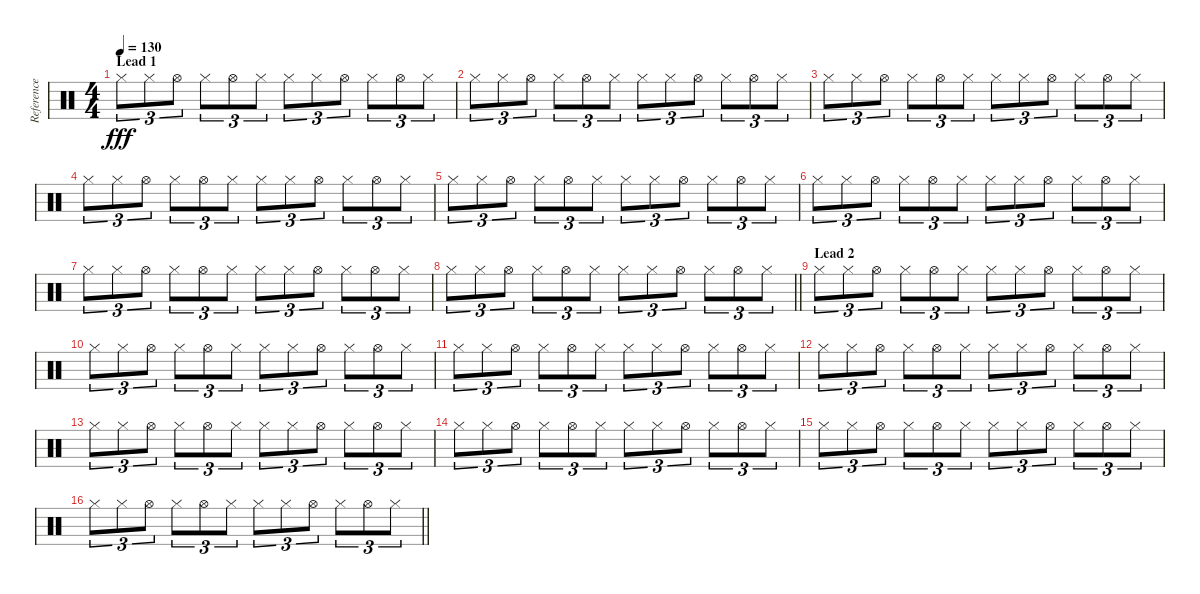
\track ("Reference metronome" "Reference ") {instrument percussion}
\staff {score}
\articulation defaults
\ts (4 4)
\section ("" "Lead 1")
\tempo 130
\clef neutral
\ks c "Hi-Hat (closed)".8{tu (3 2) dy fff} "Hi-Hat (closed)".8{tu (3 2)} "Hi-Hat (open)".8{tu (3 2)} "Hi-Hat (closed)".8{tu (3 2)} "Hi-Hat (open)".8{tu (3 2)} "Hi-Hat (closed)".8{tu (3 2)} "Hi-Hat (closed)".8{tu (3 2)} "Hi-Hat (closed)".8{tu (3 2)} "Hi-Hat (open)".8{tu (3 2)} "Hi-Hat (closed)".8{tu (3 2)} "Hi-Hat (open)".8{tu (3 2)} "Hi-Hat (closed)".8{tu (3 2)}
|
"Hi-Hat (closed)".8{tu (3 2)} "Hi-Hat (closed)".8{tu (3 2)} "Hi-Hat (open)".8{tu (3 2)} "Hi-Hat (closed)".8{tu (3 2)} "Hi-Hat (open)".8{tu (3 2)} "Hi-Hat (closed)".8{tu (3 2)} "Hi-Hat (closed)".8{tu (3 2)} "Hi-Hat (closed)".8{tu (3 2)} "Hi-Hat (open)".8{tu (3 2)} "Hi-Hat (closed)".8{tu (3 2)} "Hi-Hat (open)".8{tu (3 2)} "Hi-Hat (closed)".8{tu (3 2)} |
"Hi-Hat (closed)".8{tu (3 2)} "Hi-Hat (closed)".8{tu (3 2)} "Hi-Hat (open)".8{tu (3 2)} "Hi-Hat (closed)".8{tu (3 2)} "Hi-Hat (open)".8{tu (3 2)} "Hi-Hat (closed)".8{tu (3 2)} "Hi-Hat (closed)".8{tu (3 2)} "Hi-Hat (closed)".8{tu (3 2)} "Hi-Hat (open)".8{tu (3 2)} "Hi-Hat (closed)".8{tu (3 2)} "Hi-Hat (open)".8{tu (3 2)} "Hi-Hat (closed)".8{tu (3 2)} |
"Hi-Hat (closed)".8{tu (3 2)} "Hi-Hat (closed)".8{tu (3 2)} "Hi-Hat (open)".8{tu (3 2)} "Hi-Hat (closed)".8{tu (3 2)} "Hi-Hat (open)".8{tu (3 2)} "Hi-Hat (closed)".8{tu (3 2)} "Hi-Hat (closed)".8{tu (3 2)} "Hi-Hat (closed)".8{tu (3 2)} "Hi-Hat (open)".8{tu (3 2)} "Hi-Hat (closed)".8{tu (3 2)} "Hi-Hat (open)".8{tu (3 2)} "Hi-Hat (closed)".8{tu (3 2)} |
"Hi-Hat (closed)".8{tu (3 2)} "Hi-Hat (closed)".8{tu (3 2)} "Hi-Hat (open)".8{tu (3 2)} "Hi-Hat (closed)".8{tu (3 2)} "Hi-Hat (open)".8{tu (3 2)} "Hi-Hat (closed)".8{tu (3 2)} "Hi-Hat (closed)".8{tu (3 2)} "Hi-Hat (closed)".8{tu (3 2)} "Hi-Hat (open)".8{tu (3 2)} "Hi-Hat (closed)".8{tu (3 2)} "Hi-Hat (open)".8{tu (3 2)} "Hi-Hat (closed)".8{tu (3 2)} |
"Hi-Hat (closed)".8{tu (3 2)} "Hi-Hat (closed)".8{tu (3 2)} "Hi-Hat (open)".8{tu (3 2)} "Hi-Hat (closed)".8{tu (3 2)} "Hi-Hat (open)".8{tu (3 2)} "Hi-Hat (closed)".8{tu (3 2)} "Hi-Hat (closed)".8{tu (3 2)} "Hi-Hat (closed)".8{tu (3 2)} "Hi-Hat (open)".8{tu (3 2)} "Hi-Hat (closed)".8{tu (3 2)} "Hi-Hat (open)".8{tu (3 2)} "Hi-Hat (closed)".8{tu (3 2)} |
"Hi-Hat (closed)".8{tu (3 2)} "Hi-Hat (closed)".8{tu (3 2)} "Hi-Hat (open)".8{tu (3 2)} "Hi-Hat (closed)".8{tu (3 2)} "Hi-Hat (open)".8{tu (3 2)} "Hi-Hat (closed)".8{tu (3 2)} "Hi-Hat (closed)".8{tu (3 2)} "Hi-Hat (closed)".8{tu (3 2)} "Hi-Hat (open)".8{tu (3 2)} "Hi-Hat (closed)".8{tu (3 2)} "Hi-Hat (open)".8{tu (3 2)} "Hi-Hat (closed)".8{tu (3 2)} |
\barLineRight lightlight "Hi-Hat (closed)".8{tu (3 2)} "Hi-Hat (closed)".8{tu (3 2)} "Hi-Hat (open)".8{tu (3 2)} "Hi-Hat (closed)".8{tu (3 2)} "Hi-Hat (open)".8{tu (3 2)} "Hi-Hat (closed)".8{tu (3 2)} "Hi-Hat (closed)".8{tu (3 2)} "Hi-Hat (closed)".8{tu (3 2)} "Hi-Hat (open)".8{tu (3 2)} "Hi-Hat (closed)".8{tu (3 2)} "Hi-Hat (open)".8{tu (3 2)} "Hi-Hat (closed)".8{tu (3 2)}
|
\section ("" "Lead 2")
"Hi-Hat (closed)".8{tu (3 2)} "Hi-Hat (closed)".8{tu (3 2)} "Hi-Hat (open)".8{tu (3 2)} "Hi-Hat (closed)".8{tu (3 2)} "Hi-Hat (open)".8{tu (3 2)} "Hi-Hat (closed)".8{tu (3 2)} "Hi-Hat (closed)".8{tu (3 2)} "Hi-Hat (closed)".8{tu (3 2)} "Hi-Hat (open)".8{tu (3 2)} "Hi-Hat (closed)".8{tu (3 2)} "Hi-Hat (open)".8{tu (3 2)} "Hi-Hat (closed)".8{tu (3 2)} |
"Hi-Hat (closed)".8{tu (3 2)} "Hi-Hat (closed)".8{tu (3 2)} "Hi-Hat (open)".8{tu (3 2)} "Hi-Hat (closed)".8{tu (3 2)} "Hi-Hat (open)".8{tu (3 2)} "Hi-Hat (closed)".8{tu (3 2)} "Hi-Hat (closed)".8{tu (3 2)} "Hi-Hat (closed)".8{tu (3 2)} "Hi-Hat (open)".8{tu (3 2)} "Hi-Hat (closed)".8{tu (3 2)} "Hi-Hat (open)".8{tu (3 2)} "Hi-Hat (closed)".8{tu (3 2)} |
"Hi-Hat (closed)".8{tu (3 2)} "Hi-Hat (closed)".8{tu (3 2)} "Hi-Hat (open)".8{tu (3 2)} "Hi-Hat (closed)".8{tu (3 2)} "Hi-Hat (open)".8{tu (3 2)} "Hi-Hat (closed)".8{tu (3 2)} "Hi-Hat (closed)".8{tu (3 2)} "Hi-Hat (closed)".8{tu (3 2)} "Hi-Hat (open)".8{tu (3 2)} "Hi-Hat (closed)".8{tu (3 2)} "Hi-Hat (open)".8{tu (3 2)} "Hi-Hat (closed)".8{tu (3 2)} |
"Hi-Hat (closed)".8{tu (3 2)} "Hi-Hat (closed)".8{tu (3 2)} "Hi-Hat (open)".8{tu (3 2)} "Hi-Hat (closed)".8{tu (3 2)} "Hi-Hat (open)".8{tu (3 2)} "Hi-Hat (closed)".8{tu (3 2)} "Hi-Hat (closed)".8{tu (3 2)} "Hi-Hat (closed)".8{tu (3 2)} "Hi-Hat (open)".8{tu (3 2)} "Hi-Hat (closed)".8{tu (3 2)} "Hi-Hat (open)".8{tu (3 2)} "Hi-Hat (closed)".8{tu (3 2)} |
"Hi-Hat (closed)".8{tu (3 2)} "Hi-Hat (closed)".8{tu (3 2)} "Hi-Hat (open)".8{tu (3 2)} "Hi-Hat (closed)".8{tu (3 2)} "Hi-Hat (open)".8{tu (3 2)} "Hi-Hat (closed)".8{tu (3 2)} "Hi-Hat (closed)".8{tu (3 2)} "Hi-Hat (closed)".8{tu (3 2)} "Hi-Hat (open)".8{tu (3 2)} "Hi-Hat (closed)".8{tu (3 2)} "Hi-Hat (open)".8{tu (3 2)} "Hi-Hat (closed)".8{tu (3 2)} |
"Hi-Hat (closed)".8{tu (3 2)} "Hi-Hat (closed)".8{tu (3 2)} "Hi-Hat (open)".8{tu (3 2)} "Hi-Hat (closed)".8{tu (3 2)} "Hi-Hat (open)".8{tu (3 2)} "Hi-Hat (closed)".8{tu (3 2)} "Hi-Hat (closed)".8{tu (3 2)} "Hi-Hat (closed)".8{tu (3 2)} "Hi-Hat (open)".8{tu (3 2)} "Hi-Hat (closed)".8{tu (3 2)} "Hi-Hat (open)".8{tu (3 2)} "Hi-Hat (closed)".8{tu (3 2)} |
"Hi-Hat (closed)".8{tu (3 2)} "Hi-Hat (closed)".8{tu (3 2)} "Hi-Hat (open)".8{tu (3 2)} "Hi-Hat (closed)".8{tu (3 2)} "Hi-Hat (open)".8{tu (3 2)} "Hi-Hat (closed)".8{tu (3 2)} "Hi-Hat (closed)".8{tu (3 2)} "Hi-Hat (closed)".8{tu (3 2)} "Hi-Hat (open)".8{tu (3 2)} "Hi-Hat (closed)".8{tu (3 2)} "Hi-Hat (open)".8{tu (3 2)} "Hi-Hat (closed)".8{tu (3 2)} |
\barLineRight lightlight "Hi-Hat (closed)".8{tu (3 2)} "Hi-Hat (closed)".8{tu (3 2)} "Hi-Hat (open)".8{tu (3 2)} "Hi-Hat (closed)".8{tu (3 2)} "Hi-Hat (open)".8{tu (3 2)} "Hi-Hat (closed)".8{tu (3 2)} "Hi-Hat (closed)".8{tu (3 2)} "Hi-Hat (closed)".8{tu (3 2)} "Hi-Hat (open)".8{tu (3 2)} "Hi-Hat (closed)".8{tu (3 2)} "Hi-Hat (open)".8{tu (3 2)} "Hi-Hat (closed)".8{tu (3 2)}
